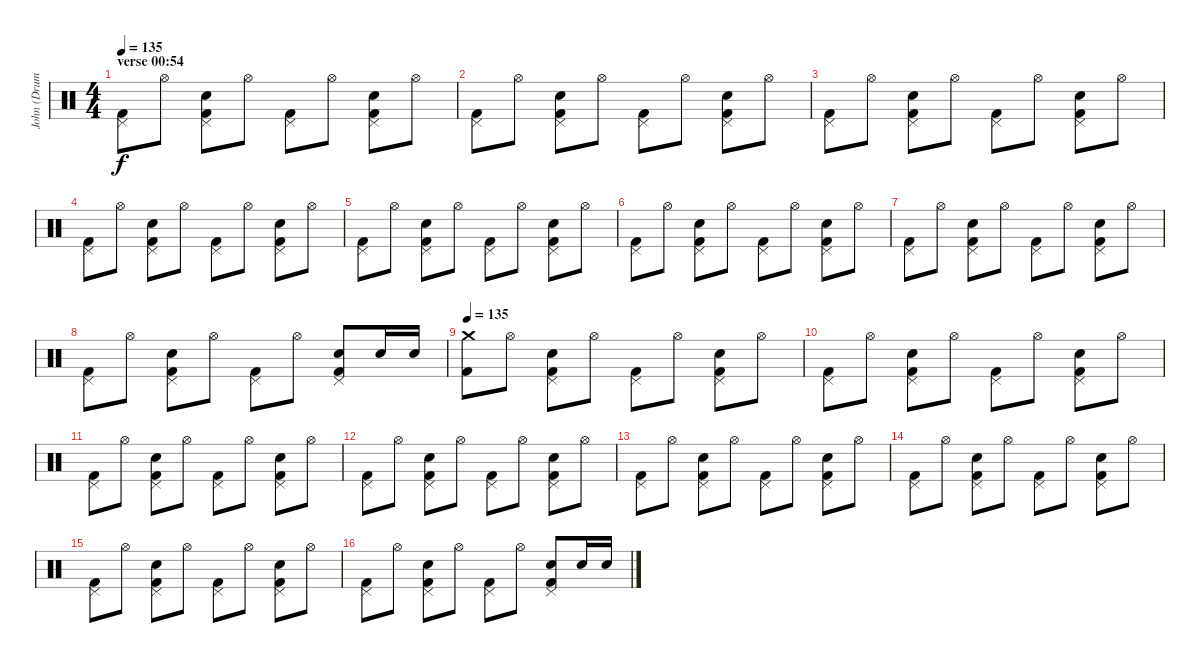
\track ("John (Drums)" "John (Drum") {instrument percussion}
\staff {score}
\articulation defaults
\ts (4 4)
\section ("" "verse 00:54")
\tempo 135
\clef neutral
\ks c
("Pedal Hi-Hat (hit)" "Kick (hit) 2").8{dy f} "Hi-Hat (open)".8 ("Pedal Hi-Hat (hit)" "Snare (hit) 2" "Kick (hit) 2").8 "Hi-Hat (open)".8 ("Pedal Hi-Hat (hit)" "Kick (hit) 2").8 "Hi-Hat (open)".8 ("Pedal Hi-Hat (hit)" "Snare (hit) 2" "Kick (hit) 2").8 "Hi-Hat (open)".8 |
("Pedal Hi-Hat (hit)" "Kick (hit) 2").8 "Hi-Hat (open)".8 ("Pedal Hi-Hat (hit)" "Snare (hit) 2" "Kick (hit) 2").8 "Hi-Hat (open)".8 ("Pedal Hi-Hat (hit)" "Kick (hit) 2").8 "Hi-Hat (open)".8 ("Pedal Hi-Hat (hit)" "Snare (hit) 2" "Kick (hit) 2").8 "Hi-Hat (open)".8 |
("Pedal Hi-Hat (hit)" "Kick (hit) 2").8 "Hi-Hat (open)".8 ("Pedal Hi-Hat (hit)" "Snare (hit) 2" "Kick (hit) 2").8 "Hi-Hat (open)".8 ("Pedal Hi-Hat (hit)" "Kick (hit) 2").8 "Hi-Hat (open)".8 ("Pedal Hi-Hat (hit)" "Snare (hit) 2" "Kick (hit) 2").8 "Hi-Hat (open)".8 |
("Pedal Hi-Hat (hit)" "Kick (hit) 2").8 "Hi-Hat (open)".8 ("Pedal Hi-Hat (hit)" "Snare (hit) 2" "Kick (hit) 2").8 "Hi-Hat (open)".8 ("Pedal Hi-Hat (hit)" "Kick (hit) 2").8 "Hi-Hat (open)".8 ("Pedal Hi-Hat (hit)" "Snare (hit) 2" "Kick (hit) 2").8 "Hi-Hat (open)".8 |
("Pedal Hi-Hat (hit)" "Kick (hit) 2").8 "Hi-Hat (open)".8 ("Pedal Hi-Hat (hit)" "Snare (hit) 2" "Kick (hit) 2").8 "Hi-Hat (open)".8 ("Pedal Hi-Hat (hit)" "Kick (hit) 2").8 "Hi-Hat (open)".8 ("Pedal Hi-Hat (hit)" "Snare (hit) 2" "Kick (hit) 2").8 "Hi-Hat (open)".8 |
("Pedal Hi-Hat (hit)" "Kick (hit) 2").8 "Hi-Hat (open)".8 ("Pedal Hi-Hat (hit)" "Snare (hit) 2" "Kick (hit) 2").8 "Hi-Hat (open)".8 ("Pedal Hi-Hat (hit)" "Kick (hit) 2").8 "Hi-Hat (open)".8 ("Pedal Hi-Hat (hit)" "Snare (hit) 2" "Kick (hit) 2").8 "Hi-Hat (open)".8 |
("Pedal Hi-Hat (hit)" "Kick (hit) 2").8 "Hi-Hat (open)".8 ("Pedal Hi-Hat (hit)" "Snare (hit) 2" "Kick (hit) 2").8 "Hi-Hat (open)".8 ("Pedal Hi-Hat (hit)" "Kick (hit) 2").8 "Hi-Hat (open)".8 ("Pedal Hi-Hat (hit)" "Snare (hit) 2" "Kick (hit) 2").8 "Hi-Hat (open)".8 |
("Pedal Hi-Hat (hit)" "Kick (hit) 2").8 "Hi-Hat (open)".8 ("Pedal Hi-Hat (hit)" "Snare (hit) 2" "Kick (hit) 2").8 "Hi-Hat (open)".8 ("Pedal Hi-Hat (hit)" "Kick (hit) 2").8 "Hi-Hat (open)".8 ("Pedal Hi-Hat (hit)" "Snare (hit) 2" "Kick (hit) 2").8 "Snare (hit) 2".16 "Snare (hit) 2".16 |
\tempo 135
("Crash medium (hit)" "Kick (hit) 2").8 "Hi-Hat (open)".8 ("Pedal Hi-Hat (hit)" "Snare (hit) 2" "Kick (hit) 2").8 "Hi-Hat (open)".8 ("Pedal Hi-Hat (hit)" "Kick (hit) 2").8 "Hi-Hat (open)".8 ("Pedal Hi-Hat (hit)" "Snare (hit) 2" "Kick (hit) 2").8 "Hi-Hat (open)".8 |
("Pedal Hi-Hat (hit)" "Kick (hit) 2").8 "Hi-Hat (open)".8 ("Pedal Hi-Hat (hit)" "Snare (hit) 2" "Kick (hit) 2").8 "Hi-Hat (open)".8 ("Pedal Hi-Hat (hit)" "Kick (hit) 2").8 "Hi-Hat (open)".8 ("Pedal Hi-Hat (hit)" "Snare (hit) 2" "Kick (hit) 2").8 "Hi-Hat (open)".8 |
("Pedal Hi-Hat (hit)" "Kick (hit) 2").8 "Hi-Hat (open)".8 ("Pedal Hi-Hat (hit)" "Snare (hit) 2" "Kick (hit) 2").8 "Hi-Hat (open)".8 ("Pedal Hi-Hat (hit)" "Kick (hit) 2").8 "Hi-Hat (open)".8 ("Pedal Hi-Hat (hit)" "Snare (hit) 2" "Kick (hit) 2").8 "Hi-Hat (open)".8 |
("Pedal Hi-Hat (hit)" "Kick (hit) 2").8 "Hi-Hat (open)".8 ("Pedal Hi-Hat (hit)" "Snare (hit) 2" "Kick (hit) 2").8 "Hi-Hat (open)".8 ("Pedal Hi-Hat (hit)" "Kick (hit) 2").8 "Hi-Hat (open)".8 ("Pedal Hi-Hat (hit)" "Snare (hit) 2" "Kick (hit) 2").8 "Hi-Hat (open)".8 |
("Pedal Hi-Hat (hit)" "Kick (hit) 2").8 "Hi-Hat (open)".8 ("Pedal Hi-Hat (hit)" "Snare (hit) 2" "Kick (hit) 2").8 "Hi-Hat (open)".8 ("Pedal Hi-Hat (hit)" "Kick (hit) 2").8 "Hi-Hat (open)".8 ("Pedal Hi-Hat (hit)" "Snare (hit) 2" "Kick (hit) 2").8 "Hi-Hat (open)".8 |
("Pedal Hi-Hat (hit)" "Kick (hit) 2").8 "Hi-Hat (open)".8 ("Pedal Hi-Hat (hit)" "Snare (hit) 2" "Kick (hit) 2").8 "Hi-Hat (open)".8 ("Pedal Hi-Hat (hit)" "Kick (hit) 2").8 "Hi-Hat (open)".8 ("Pedal Hi-Hat (hit)" "Snare (hit) 2" "Kick (hit) 2").8 "Hi-Hat (open)".8 |
("Pedal Hi-Hat (hit)" "Kick (hit) 2").8 "Hi-Hat (open)".8 ("Pedal Hi-Hat (hit)" "Snare (hit) 2" "Kick (hit) 2").8 "Hi-Hat (open)".8 ("Pedal Hi-Hat (hit)" "Kick (hit) 2").8 "Hi-Hat (open)".8 ("Pedal Hi-Hat (hit)" "Snare (hit) 2" "Kick (hit) 2").8 "Hi-Hat (open)".8 |
("Pedal Hi-Hat (hit)" "Kick (hit) 2").8 "Hi-Hat (open)".8 ("Pedal Hi-Hat (hit)" "Snare (hit) 2" "Kick (hit) 2").8 "Hi-Hat (open)".8 ("Pedal Hi-Hat (hit)" "Kick (hit) 2").8 "Hi-Hat (open)".8 ("Pedal Hi-Hat (hit)" "Snare (hit) 2" "Kick (hit) 2").8 "Snare (hit) 2".16 "Snare (hit) 2".16
